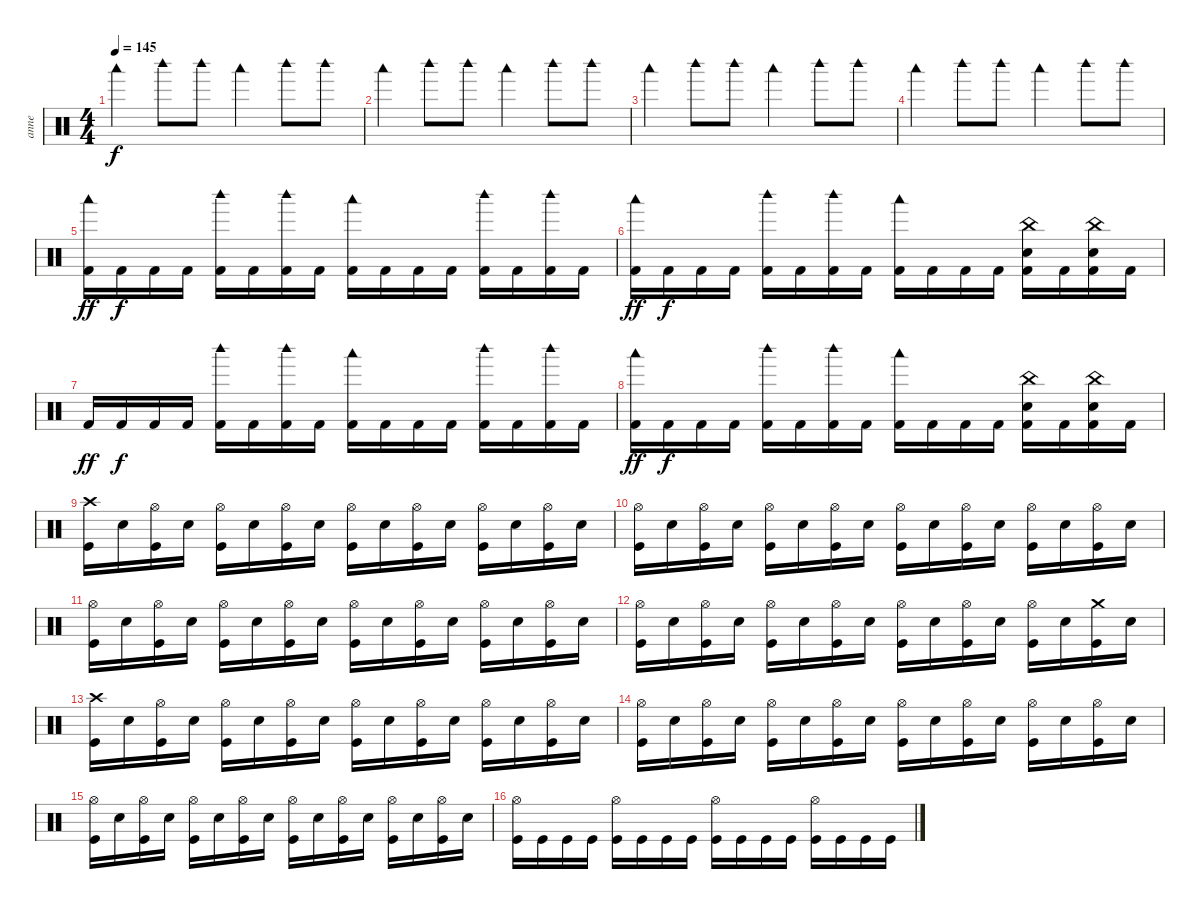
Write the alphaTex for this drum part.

\track ("anne" "anne") {instrument percussion}
\staff {score}
\articulation defaults
\ts (4 4)
\tempo 145
\clef neutral
\ks c "Woodblock low (hit)".4{dy f} "Woodblock high (hit)".8 "Woodblock high (hit)".8 "Woodblock low (hit)".4 "Woodblock high (hit)".8 "Woodblock high (hit)".8
|
"Woodblock low (hit)".4 "Woodblock high (hit)".8 "Woodblock high (hit)".8 "Woodblock low (hit)".4 "Woodblock high (hit)".8 "Woodblock high (hit)".8 |
"Woodblock low (hit)".4 "Woodblock high (hit)".8 "Woodblock high (hit)".8 "Woodblock low (hit)".4 "Woodblock high (hit)".8 "Woodblock high (hit)".8 |
"Woodblock low (hit)".4 "Woodblock high (hit)".8 "Woodblock high (hit)".8 "Woodblock low (hit)".4 "Woodblock high (hit)".8 "Woodblock high (hit)".8 |
("Woodblock low (hit)" "Kick (hit) 2").16{dy ff} "Kick (hit) 2".16{dy f} "Kick (hit) 2".16 "Kick (hit) 2".16 ("Kick (hit) 2" "Woodblock high (hit)").16 "Kick (hit) 2".16 ("Kick (hit) 2" "Woodblock high (hit)").16 "Kick (hit) 2".16 ("Kick (hit) 2" "Woodblock low (hit)").16 "Kick (hit) 2".16 "Kick (hit) 2".16 "Kick (hit) 2".16 ("Kick (hit) 2" "Woodblock high (hit)").16 "Kick (hit) 2".16 ("Kick (hit) 2" "Woodblock high (hit)").16 "Kick (hit) 2".16 |
("Woodblock low (hit)" "Kick (hit) 2").16{dy ff} "Kick (hit) 2".16{dy f} "Kick (hit) 2".16 "Kick (hit) 2".16 ("Kick (hit) 2" "Woodblock high (hit)").16 "Kick (hit) 2".16 ("Kick (hit) 2" "Woodblock high (hit)").16 "Kick (hit) 2".16 ("Kick (hit) 2" "Woodblock low (hit)").16 "Kick (hit) 2".16 "Kick (hit) 2".16 "Kick (hit) 2".16 ("Kick (hit) 2" "Electric Snare (hit)" "China (hit)").16 "Kick (hit) 2".16 ("Kick (hit) 2" "Electric Snare (hit)" "China (hit)").16 "Kick (hit) 2".16 |
"Kick (hit) 2".16{dy ff} "Kick (hit) 2".16{dy f} "Kick (hit) 2".16 "Kick (hit) 2".16 ("Kick (hit) 2" "Woodblock high (hit)").16 "Kick (hit) 2".16 ("Kick (hit) 2" "Woodblock high (hit)").16 "Kick (hit) 2".16 ("Kick (hit) 2" "Woodblock low (hit)").16 "Kick (hit) 2".16 "Kick (hit) 2".16 "Kick (hit) 2".16 ("Kick (hit) 2" "Woodblock high (hit)").16 "Kick (hit) 2".16 ("Kick (hit) 2" "Woodblock high (hit)").16 "Kick (hit) 2".16 |
("Woodblock low (hit)" "Kick (hit) 2").16{dy ff} "Kick (hit) 2".16{dy f} "Kick (hit) 2".16 "Kick (hit) 2".16 ("Kick (hit) 2" "Woodblock high (hit)").16 "Kick (hit) 2".16 ("Kick (hit) 2" "Woodblock high (hit)").16 "Kick (hit) 2".16 ("Kick (hit) 2" "Woodblock low (hit)").16 "Kick (hit) 2".16 "Kick (hit) 2".16 "Kick (hit) 2".16 ("Kick (hit) 2" "Electric Snare (hit)" "China (hit)").16 "Kick (hit) 2".16 ("Kick (hit) 2" "Electric Snare (hit)" "China (hit)").16 "Kick (hit) 2".16 |
("Crash high (hit)" "Kick (hit)").16 "Electric Snare (hit)".16 ("Hi-Hat (open)" "Kick (hit)").16 "Electric Snare (hit)".16 ("Hi-Hat (open)" "Kick (hit)").16 "Electric Snare (hit)".16 ("Hi-Hat (open)" "Kick (hit)").16 "Electric Snare (hit)".16 ("Hi-Hat (open)" "Kick (hit)").16 "Electric Snare (hit)".16 ("Hi-Hat (open)" "Kick (hit)").16 "Electric Snare (hit)".16 ("Hi-Hat (open)" "Kick (hit)").16 "Electric Snare (hit)".16 ("Hi-Hat (open)" "Kick (hit)").16 "Electric Snare (hit)".16 |
("Hi-Hat (open)" "Kick (hit)").16 "Electric Snare (hit)".16 ("Hi-Hat (open)" "Kick (hit)").16 "Electric Snare (hit)".16 ("Hi-Hat (open)" "Kick (hit)").16 "Electric Snare (hit)".16 ("Hi-Hat (open)" "Kick (hit)").16 "Electric Snare (hit)".16 ("Hi-Hat (open)" "Kick (hit)").16 "Electric Snare (hit)".16 ("Hi-Hat (open)" "Kick (hit)").16 "Electric Snare (hit)".16 ("Hi-Hat (open)" "Kick (hit)").16 "Electric Snare (hit)".16 ("Hi-Hat (open)" "Kick (hit)").16 "Electric Snare (hit)".16 |
("Hi-Hat (open)" "Kick (hit)").16 "Electric Snare (hit)".16 ("Hi-Hat (open)" "Kick (hit)").16 "Electric Snare (hit)".16 ("Hi-Hat (open)" "Kick (hit)").16 "Electric Snare (hit)".16 ("Hi-Hat (open)" "Kick (hit)").16 "Electric Snare (hit)".16 ("Hi-Hat (open)" "Kick (hit)").16 "Electric Snare (hit)".16 ("Hi-Hat (open)" "Kick (hit)").16 "Electric Snare (hit)".16 ("Hi-Hat (open)" "Kick (hit)").16 "Electric Snare (hit)".16 ("Hi-Hat (open)" "Kick (hit)").16 "Electric Snare (hit)".16 |
("Hi-Hat (open)" "Kick (hit)").16 "Electric Snare (hit)".16 ("Hi-Hat (open)" "Kick (hit)").16 "Electric Snare (hit)".16 ("Hi-Hat (open)" "Kick (hit)").16 "Electric Snare (hit)".16 ("Hi-Hat (open)" "Kick (hit)").16 "Electric Snare (hit)".16 ("Hi-Hat (open)" "Kick (hit)").16 "Electric Snare (hit)".16 ("Hi-Hat (open)" "Kick (hit)").16 "Electric Snare (hit)".16 ("Hi-Hat (open)" "Kick (hit)").16 "Electric Snare (hit)".16 ("Crash medium (hit)" "Kick (hit)").16 "Electric Snare (hit)".16 |
("Crash high (hit)" "Kick (hit)").16 "Electric Snare (hit)".16 ("Hi-Hat (open)" "Kick (hit)").16 "Electric Snare (hit)".16 ("Hi-Hat (open)" "Kick (hit)").16 "Electric Snare (hit)".16 ("Hi-Hat (open)" "Kick (hit)").16 "Electric Snare (hit)".16 ("Hi-Hat (open)" "Kick (hit)").16 "Electric Snare (hit)".16 ("Hi-Hat (open)" "Kick (hit)").16 "Electric Snare (hit)".16 ("Hi-Hat (open)" "Kick (hit)").16 "Electric Snare (hit)".16 ("Hi-Hat (open)" "Kick (hit)").16 "Electric Snare (hit)".16 |
("Hi-Hat (open)" "Kick (hit)").16 "Electric Snare (hit)".16 ("Hi-Hat (open)" "Kick (hit)").16 "Electric Snare (hit)".16 ("Hi-Hat (open)" "Kick (hit)").16 "Electric Snare (hit)".16 ("Hi-Hat (open)" "Kick (hit)").16 "Electric Snare (hit)".16 ("Hi-Hat (open)" "Kick (hit)").16 "Electric Snare (hit)".16 ("Hi-Hat (open)" "Kick (hit)").16 "Electric Snare (hit)".16 ("Hi-Hat (open)" "Kick (hit)").16 "Electric Snare (hit)".16 ("Hi-Hat (open)" "Kick (hit)").16 "Electric Snare (hit)".16 |
("Hi-Hat (open)" "Kick (hit)").16 "Electric Snare (hit)".16 ("Hi-Hat (open)" "Kick (hit)").16 "Electric Snare (hit)".16 ("Hi-Hat (open)" "Kick (hit)").16 "Electric Snare (hit)".16 ("Hi-Hat (open)" "Kick (hit)").16 "Electric Snare (hit)".16 ("Hi-Hat (open)" "Kick (hit)").16 "Electric Snare (hit)".16 ("Hi-Hat (open)" "Kick (hit)").16 "Electric Snare (hit)".16 ("Hi-Hat (open)" "Kick (hit)").16 "Electric Snare (hit)".16 ("Hi-Hat (open)" "Kick (hit)").16 "Electric Snare (hit)".16 |
("Hi-Hat (open)" "Kick (hit)").16 "Kick (hit)".16 "Kick (hit)".16 "Kick (hit)".16 ("Hi-Hat (open)" "Kick (hit)").16 "Kick (hit)".16 "Kick (hit)".16 "Kick (hit)".16 ("Hi-Hat (open)" "Kick (hit)").16 "Kick (hit)".16 "Kick (hit)".16 "Kick (hit)".16 ("Hi-Hat (open)" "Kick (hit)").16 "Kick (hit)".16 "Kick (hit)".16 "Kick (hit)".16
